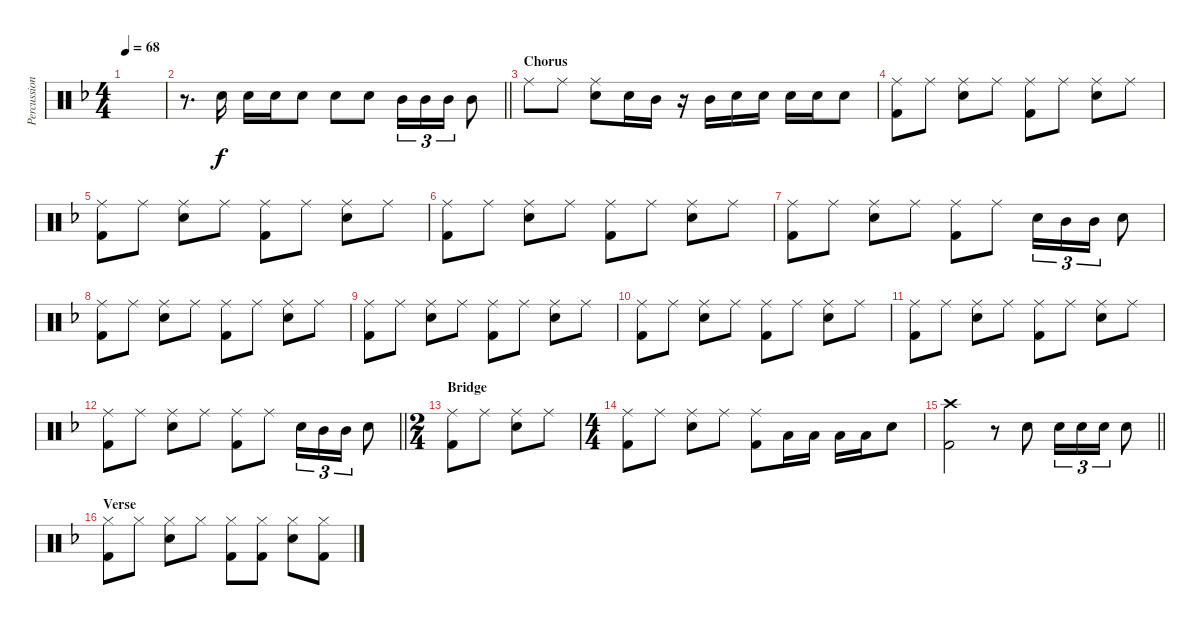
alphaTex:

\track ("Percussion" "Percussion") {instrument percussion}
\staff {score}
\articulation defaults
\ts (4 4)
\tempo 68
\clef neutral
\ks f
|
\barLineRight lightlight
r.8{d} "Snare (hit) 2".16{dy f} "Snare (hit) 2".16 "Snare (hit) 2".16 "Snare (hit) 2".8 "Snare (hit) 2".8 "Snare (hit) 2".8 "Mid Tom (hit)".16{tu (3 2)} "Mid Tom (hit)".16{tu (3 2)} "Mid Tom (hit)".16{tu (3 2)} "Mid Tom (hit)".8 |
\section ("" "Chorus")
"Ride (middle)".8 "Ride (middle)".8 ("Ride (middle)" "Snare (hit) 2").8 "Snare (hit) 2".16 "Mid Tom (hit)".16 r.16 "Mid Tom (hit)".16 "Snare (hit) 2".16 "Snare (hit) 2".16 "Snare (hit) 2".16 "Snare (hit) 2".16 "Snare (hit) 2".8 |
("Ride (middle)" "Kick (hit) 2").8 "Ride (middle)".8 ("Ride (middle)" "Snare (hit) 2").8 "Ride (middle)".8 ("Ride (middle)" "Kick (hit) 2").8 "Ride (middle)".8 ("Ride (middle)" "Snare (hit) 2").8 "Ride (middle)".8 |
("Ride (middle)" "Kick (hit) 2").8 "Ride (middle)".8 ("Ride (middle)" "Snare (hit) 2").8 "Ride (middle)".8 ("Ride (middle)" "Kick (hit) 2").8 "Ride (middle)".8 ("Ride (middle)" "Snare (hit) 2").8 "Ride (middle)".8 |
("Ride (middle)" "Kick (hit) 2").8 "Ride (middle)".8 ("Ride (middle)" "Snare (hit) 2").8 "Ride (middle)".8 ("Ride (middle)" "Kick (hit) 2").8 "Ride (middle)".8 ("Ride (middle)" "Snare (hit) 2").8 "Ride (middle)".8 |
("Ride (middle)" "Kick (hit) 2").8 "Ride (middle)".8 ("Ride (middle)" "Snare (hit) 2").8 "Ride (middle)".8 ("Ride (middle)" "Kick (hit) 2").8 "Ride (middle)".8 "Snare (hit) 2".16{tu (3 2)} "Mid Tom (hit)".16{tu (3 2)} "Mid Tom (hit)".16{tu (3 2)} "Snare (hit) 2".8 |
("Ride (middle)" "Kick (hit) 2").8 "Ride (middle)".8 ("Ride (middle)" "Snare (hit) 2").8 "Ride (middle)".8 ("Ride (middle)" "Kick (hit) 2").8 "Ride (middle)".8 ("Ride (middle)" "Snare (hit) 2").8 "Ride (middle)".8 |
("Ride (middle)" "Kick (hit) 2").8 "Ride (middle)".8 ("Ride (middle)" "Snare (hit) 2").8 "Ride (middle)".8 ("Ride (middle)" "Kick (hit) 2").8 "Ride (middle)".8 ("Ride (middle)" "Snare (hit) 2").8 "Ride (middle)".8 |
("Ride (middle)" "Kick (hit) 2").8 "Ride (middle)".8 ("Ride (middle)" "Snare (hit) 2").8 "Ride (middle)".8 ("Ride (middle)" "Kick (hit) 2").8 "Ride (middle)".8 ("Ride (middle)" "Snare (hit) 2").8 "Ride (middle)".8 |
("Ride (middle)" "Kick (hit) 2").8 "Ride (middle)".8 ("Ride (middle)" "Snare (hit) 2").8 "Ride (middle)".8 ("Ride (middle)" "Kick (hit) 2").8 "Ride (middle)".8 ("Ride (middle)" "Snare (hit) 2").8 "Ride (middle)".8 |
\barLineRight lightlight
("Ride (middle)" "Kick (hit) 2").8 "Ride (middle)".8 ("Ride (middle)" "Snare (hit) 2").8 "Ride (middle)".8 ("Ride (middle)" "Kick (hit) 2").8 "Ride (middle)".8 "Snare (hit) 2".16{tu (3 2)} "Mid Tom (hit)".16{tu (3 2)} "Mid Tom (hit)".16{tu (3 2)} "Snare (hit) 2".8 |
\ts (2 4)
\section ("" "Bridge")
("Ride (middle)" "Kick (hit) 2").8 "Ride (middle)".8 ("Ride (middle)" "Snare (hit) 2").8 "Ride (middle)".8 |
\ts (4 4)
("Ride (middle)" "Kick (hit) 2").8 "Ride (middle)".8 ("Ride (middle)" "Snare (hit) 2").8 "Ride (middle)".8 ("Ride (middle)" "Kick (hit) 2").8 "Low Floor Tom (hit)".16 "Low Floor Tom (hit)".16 "Low Floor Tom (hit)".16 "Low Floor Tom (hit)".16 "Snare (hit) 2".8 |
\barLineRight lightlight
("Crash high (hit)" "Kick (hit) 2").2 r.8 "Snare (hit) 2".8 "Snare (hit) 2".16{tu (3 2)} "Snare (hit) 2".16{tu (3 2)} "Snare (hit) 2".16{tu (3 2)} "Snare (hit) 2".8 |
\section ("" "Verse")
("Hi-Hat (closed)" "Kick (hit) 2").8 "Hi-Hat (closed)".8 ("Hi-Hat (closed)" "Snare (hit) 2").8 "Hi-Hat (closed)".8 ("Hi-Hat (closed)" "Kick (hit) 2").8 ("Hi-Hat (closed)" "Kick (hit) 2").8 ("Hi-Hat (closed)" "Snare (hit) 2").8 ("Hi-Hat (closed)" "Kick (hit) 2").8
